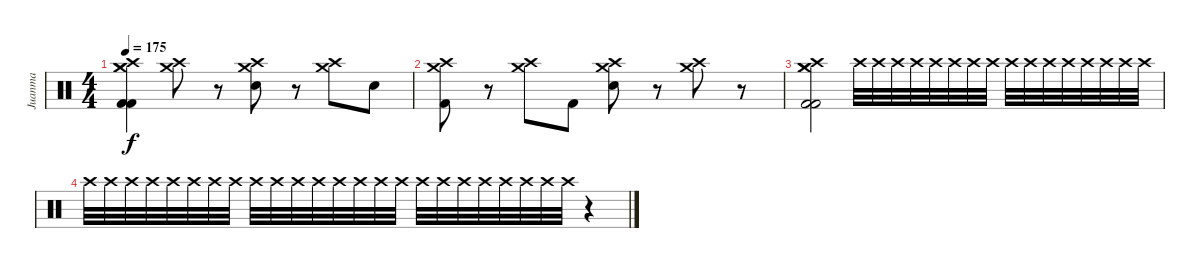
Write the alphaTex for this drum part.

\track ("Juanma" "Juanma") {instrument percussion}
\staff {score}
\articulation defaults
\ts (4 4)
\tempo 175
\clef neutral
\ks c
("Crash medium (hit)" "Crash medium (hit)" "Crash high (hit)" "Kick (hit) 2" "Kick (hit) 2").4{dy f} ("Crash high (hit)" "Crash medium (hit)").8 r.8 ("Crash high (hit)" "Crash medium (hit)" "Electric Snare (hit)").8 r.8 ("Crash high (hit)" "Crash medium (hit)").8 "Electric Snare (hit)".8 |
("Crash high (hit)" "Crash medium (hit)" "Kick (hit) 2").8 r.8 ("Crash high (hit)" "Crash medium (hit)").8 "Kick (hit) 2".8 ("Crash high (hit)" "Crash medium (hit)" "Electric Snare (hit)").8 r.8 ("Crash high (hit)" "Crash medium (hit)").8 r.8 |
("Crash medium (hit)" "Crash medium (hit)" "Crash high (hit)" "Kick (hit) 2" "Kick (hit) 2").2 "Crash high (hit)".32 "Crash high (hit)".32 "Crash high (hit)".32 "Crash high (hit)".32 "Crash high (hit)".32 "Crash high (hit)".32 "Crash high (hit)".32 "Crash high (hit)".32 "Crash high (hit)".32 "Crash high (hit)".32 "Crash high (hit)".32 "Crash high (hit)".32 "Crash high (hit)".32 "Crash high (hit)".32 "Crash high (hit)".32 "Crash high (hit)".32 |
"Crash high (hit)".32 "Crash high (hit)".32 "Crash high (hit)".32 "Crash high (hit)".32 "Crash high (hit)".32 "Crash high (hit)".32 "Crash high (hit)".32 "Crash high (hit)".32 "Crash high (hit)".32 "Crash high (hit)".32 "Crash high (hit)".32 "Crash high (hit)".32 "Crash high (hit)".32 "Crash high (hit)".32 "Crash high (hit)".32 "Crash high (hit)".32 "Crash high (hit)".32 "Crash high (hit)".32 "Crash high (hit)".32 "Crash high (hit)".32 "Crash high (hit)".32 "Crash high (hit)".32 "Crash high (hit)".32 "Crash high (hit)".32 r.4
